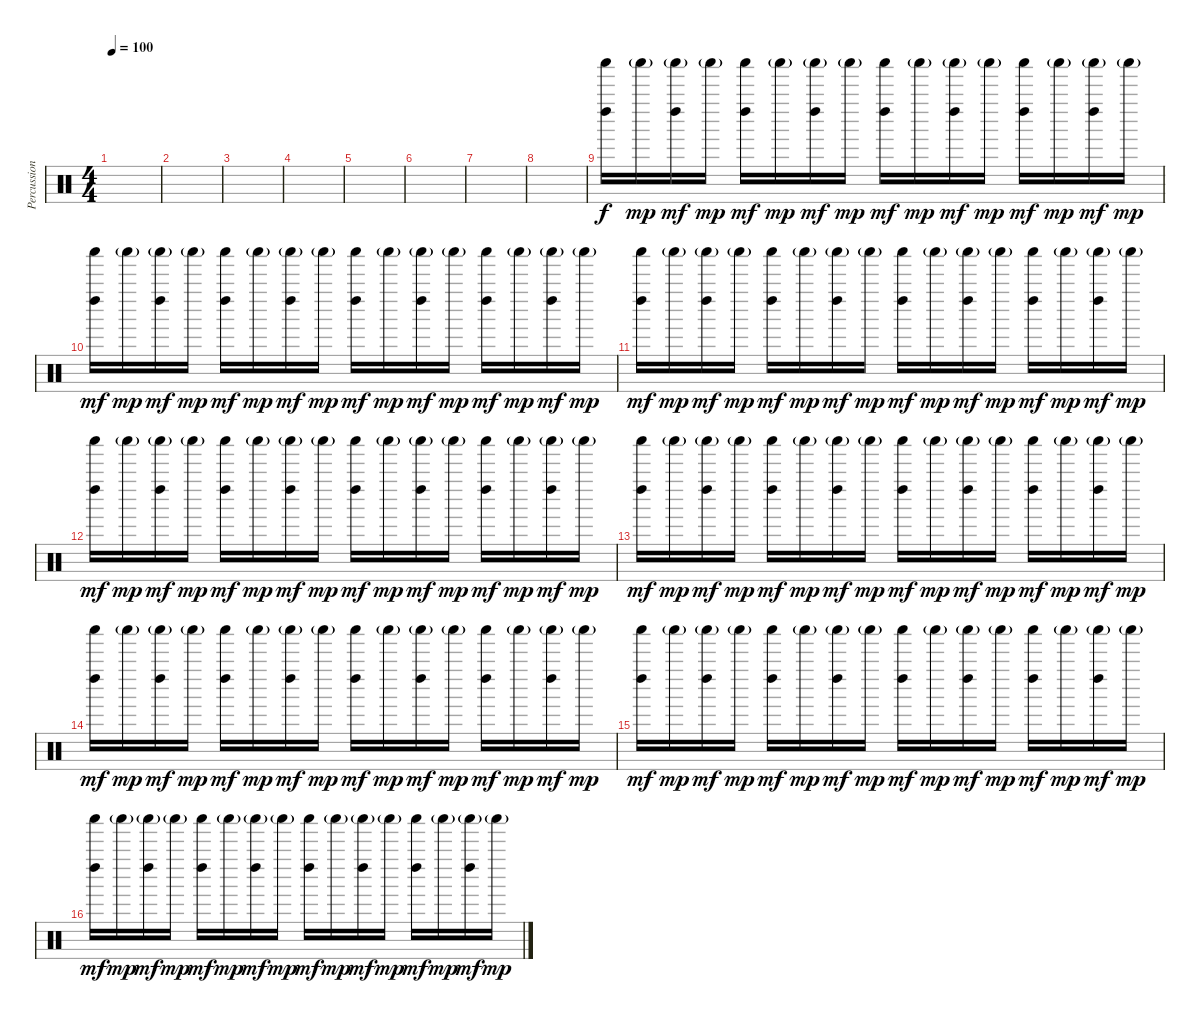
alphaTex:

\track ("Percussion" "Percussion") {instrument percussion}
\staff {score}
\articulation defaults
\ts (4 4)
\tempo 100
\clef neutral
\ks c
|
|
|
|
|
|
|
|
("Left Maraca (hit)" "Shaker (hit)").16 "Shaker (hit)"{g}.16{dy mp} ("Left Maraca (hit)" "Shaker (hit)"{g}).16{dy mf} "Shaker (hit)"{g}.16{dy mp} ("Left Maraca (hit)" "Shaker (hit)").16{dy mf} "Shaker (hit)"{g}.16{dy mp} ("Left Maraca (hit)" "Shaker (hit)"{g}).16{dy mf} "Shaker (hit)"{g}.16{dy mp} ("Left Maraca (hit)" "Shaker (hit)").16{dy mf} "Shaker (hit)"{g}.16{dy mp} ("Left Maraca (hit)" "Shaker (hit)"{g}).16{dy mf} "Shaker (hit)"{g}.16{dy mp} ("Left Maraca (hit)" "Shaker (hit)").16{dy mf} "Shaker (hit)"{g}.16{dy mp} ("Left Maraca (hit)" "Shaker (hit)"{g}).16{dy mf} "Shaker (hit)"{g}.16{dy mp} |
("Left Maraca (hit)" "Shaker (hit)").16{dy mf} "Shaker (hit)"{g}.16{dy mp} ("Left Maraca (hit)" "Shaker (hit)"{g}).16{dy mf} "Shaker (hit)"{g}.16{dy mp} ("Left Maraca (hit)" "Shaker (hit)").16{dy mf} "Shaker (hit)"{g}.16{dy mp} ("Left Maraca (hit)" "Shaker (hit)"{g}).16{dy mf} "Shaker (hit)"{g}.16{dy mp} ("Left Maraca (hit)" "Shaker (hit)").16{dy mf} "Shaker (hit)"{g}.16{dy mp} ("Left Maraca (hit)" "Shaker (hit)"{g}).16{dy mf} "Shaker (hit)"{g}.16{dy mp} ("Left Maraca (hit)" "Shaker (hit)").16{dy mf} "Shaker (hit)"{g}.16{dy mp} ("Left Maraca (hit)" "Shaker (hit)"{g}).16{dy mf} "Shaker (hit)"{g}.16{dy mp} |
("Left Maraca (hit)" "Shaker (hit)").16{dy mf} "Shaker (hit)"{g}.16{dy mp} ("Left Maraca (hit)" "Shaker (hit)"{g}).16{dy mf} "Shaker (hit)"{g}.16{dy mp} ("Left Maraca (hit)" "Shaker (hit)").16{dy mf} "Shaker (hit)"{g}.16{dy mp} ("Left Maraca (hit)" "Shaker (hit)"{g}).16{dy mf} "Shaker (hit)"{g}.16{dy mp} ("Left Maraca (hit)" "Shaker (hit)").16{dy mf} "Shaker (hit)"{g}.16{dy mp} ("Left Maraca (hit)" "Shaker (hit)"{g}).16{dy mf} "Shaker (hit)"{g}.16{dy mp} ("Left Maraca (hit)" "Shaker (hit)").16{dy mf} "Shaker (hit)"{g}.16{dy mp} ("Left Maraca (hit)" "Shaker (hit)"{g}).16{dy mf} "Shaker (hit)"{g}.16{dy mp} |
("Left Maraca (hit)" "Shaker (hit)").16{dy mf} "Shaker (hit)"{g}.16{dy mp} ("Left Maraca (hit)" "Shaker (hit)"{g}).16{dy mf} "Shaker (hit)"{g}.16{dy mp} ("Left Maraca (hit)" "Shaker (hit)").16{dy mf} "Shaker (hit)"{g}.16{dy mp} ("Left Maraca (hit)" "Shaker (hit)"{g}).16{dy mf} "Shaker (hit)"{g}.16{dy mp} ("Left Maraca (hit)" "Shaker (hit)").16{dy mf} "Shaker (hit)"{g}.16{dy mp} ("Left Maraca (hit)" "Shaker (hit)"{g}).16{dy mf} "Shaker (hit)"{g}.16{dy mp} ("Left Maraca (hit)" "Shaker (hit)").16{dy mf} "Shaker (hit)"{g}.16{dy mp} ("Left Maraca (hit)" "Shaker (hit)"{g}).16{dy mf} "Shaker (hit)"{g}.16{dy mp} |
("Left Maraca (hit)" "Shaker (hit)").16{dy mf} "Shaker (hit)"{g}.16{dy mp} ("Left Maraca (hit)" "Shaker (hit)"{g}).16{dy mf} "Shaker (hit)"{g}.16{dy mp} ("Left Maraca (hit)" "Shaker (hit)").16{dy mf} "Shaker (hit)"{g}.16{dy mp} ("Left Maraca (hit)" "Shaker (hit)"{g}).16{dy mf} "Shaker (hit)"{g}.16{dy mp} ("Left Maraca (hit)" "Shaker (hit)").16{dy mf} "Shaker (hit)"{g}.16{dy mp} ("Left Maraca (hit)" "Shaker (hit)"{g}).16{dy mf} "Shaker (hit)"{g}.16{dy mp} ("Left Maraca (hit)" "Shaker (hit)").16{dy mf} "Shaker (hit)"{g}.16{dy mp} ("Left Maraca (hit)" "Shaker (hit)"{g}).16{dy mf} "Shaker (hit)"{g}.16{dy mp} |
("Left Maraca (hit)" "Shaker (hit)").16{dy mf} "Shaker (hit)"{g}.16{dy mp} ("Left Maraca (hit)" "Shaker (hit)"{g}).16{dy mf} "Shaker (hit)"{g}.16{dy mp} ("Left Maraca (hit)" "Shaker (hit)").16{dy mf} "Shaker (hit)"{g}.16{dy mp} ("Left Maraca (hit)" "Shaker (hit)"{g}).16{dy mf} "Shaker (hit)"{g}.16{dy mp} ("Left Maraca (hit)" "Shaker (hit)").16{dy mf} "Shaker (hit)"{g}.16{dy mp} ("Left Maraca (hit)" "Shaker (hit)"{g}).16{dy mf} "Shaker (hit)"{g}.16{dy mp} ("Left Maraca (hit)" "Shaker (hit)").16{dy mf} "Shaker (hit)"{g}.16{dy mp} ("Left Maraca (hit)" "Shaker (hit)"{g}).16{dy mf} "Shaker (hit)"{g}.16{dy mp} |
("Left Maraca (hit)" "Shaker (hit)").16{dy mf} "Shaker (hit)"{g}.16{dy mp} ("Left Maraca (hit)" "Shaker (hit)"{g}).16{dy mf} "Shaker (hit)"{g}.16{dy mp} ("Left Maraca (hit)" "Shaker (hit)").16{dy mf} "Shaker (hit)"{g}.16{dy mp} ("Left Maraca (hit)" "Shaker (hit)"{g}).16{dy mf} "Shaker (hit)"{g}.16{dy mp} ("Left Maraca (hit)" "Shaker (hit)").16{dy mf} "Shaker (hit)"{g}.16{dy mp} ("Left Maraca (hit)" "Shaker (hit)"{g}).16{dy mf} "Shaker (hit)"{g}.16{dy mp} ("Left Maraca (hit)" "Shaker (hit)").16{dy mf} "Shaker (hit)"{g}.16{dy mp} ("Left Maraca (hit)" "Shaker (hit)"{g}).16{dy mf} "Shaker (hit)"{g}.16{dy mp} |
("Left Maraca (hit)" "Shaker (hit)").16{dy mf} "Shaker (hit)"{g}.16{dy mp} ("Left Maraca (hit)" "Shaker (hit)"{g}).16{dy mf} "Shaker (hit)"{g}.16{dy mp} ("Left Maraca (hit)" "Shaker (hit)").16{dy mf} "Shaker (hit)"{g}.16{dy mp} ("Left Maraca (hit)" "Shaker (hit)"{g}).16{dy mf} "Shaker (hit)"{g}.16{dy mp} ("Left Maraca (hit)" "Shaker (hit)").16{dy mf} "Shaker (hit)"{g}.16{dy mp} ("Left Maraca (hit)" "Shaker (hit)"{g}).16{dy mf} "Shaker (hit)"{g}.16{dy mp} ("Left Maraca (hit)" "Shaker (hit)").16{dy mf} "Shaker (hit)"{g}.16{dy mp} ("Left Maraca (hit)" "Shaker (hit)"{g}).16{dy mf} "Shaker (hit)"{g}.16{dy mp}
